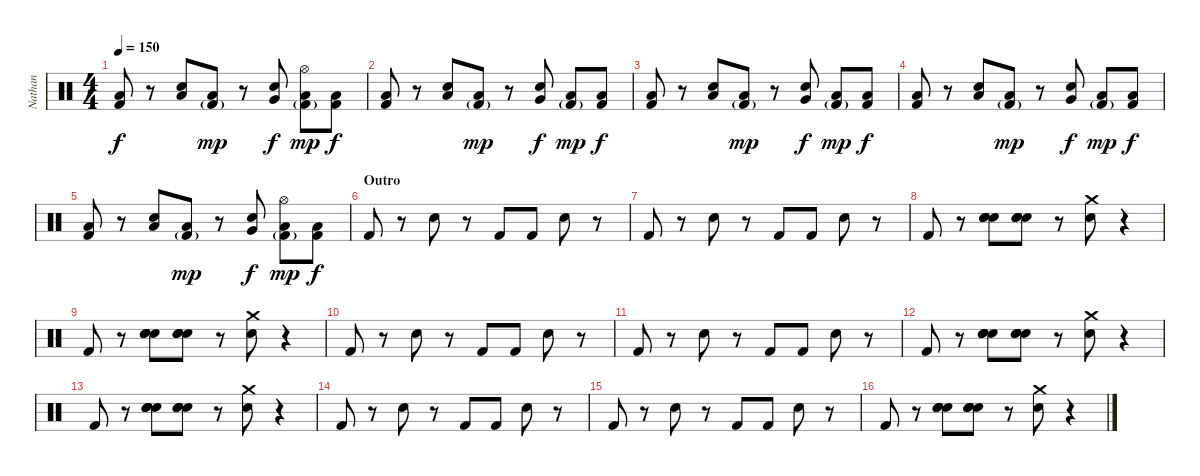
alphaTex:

\track ("Nathan" "Nathan") {instrument percussion}
\staff {score}
\articulation defaults
\ts (4 4)
\tempo 150
\clef neutral
\ks c
("Low Floor Tom (hit)" "Kick (hit) 2").8{dy f} r.8 ("Electric Snare (hit)" "Low Tom (hit)").8 ("Low Floor Tom (hit)" "Kick (hit) 2"{g}).8{dy mp} r.8 ("Electric Snare (hit)" "Very Low Tom (hit)").8{dy f} ("Hi-Hat (open)" "Low Floor Tom (hit)" "Kick (hit) 2"{g}).8{dy mp} ("Low Floor Tom (hit)" "Kick (hit) 2").8{dy f} |
("Low Floor Tom (hit)" "Kick (hit) 2").8 r.8 ("Electric Snare (hit)" "Low Tom (hit)").8 ("Low Floor Tom (hit)" "Kick (hit) 2"{g}).8{dy mp} r.8 ("Electric Snare (hit)" "Very Low Tom (hit)").8{dy f} ("Low Floor Tom (hit)" "Kick (hit) 2"{g}).8{dy mp} ("Low Floor Tom (hit)" "Kick (hit) 2").8{dy f} |
("Low Floor Tom (hit)" "Kick (hit) 2").8 r.8 ("Electric Snare (hit)" "Low Tom (hit)").8 ("Low Floor Tom (hit)" "Kick (hit) 2"{g}).8{dy mp} r.8 ("Electric Snare (hit)" "Very Low Tom (hit)").8{dy f} ("Low Floor Tom (hit)" "Kick (hit) 2"{g}).8{dy mp} ("Low Floor Tom (hit)" "Kick (hit) 2").8{dy f} |
("Low Floor Tom (hit)" "Kick (hit) 2").8 r.8 ("Electric Snare (hit)" "Low Tom (hit)").8 ("Low Floor Tom (hit)" "Kick (hit) 2"{g}).8{dy mp} r.8 ("Electric Snare (hit)" "Very Low Tom (hit)").8{dy f} ("Low Floor Tom (hit)" "Kick (hit) 2"{g}).8{dy mp} ("Low Floor Tom (hit)" "Kick (hit) 2").8{dy f} |
("Low Floor Tom (hit)" "Kick (hit) 2").8 r.8 ("Electric Snare (hit)" "Low Tom (hit)").8 ("Low Floor Tom (hit)" "Kick (hit) 2"{g}).8{dy mp} r.8 ("Electric Snare (hit)" "Very Low Tom (hit)").8{dy f} ("Hi-Hat (open)" "Low Floor Tom (hit)" "Kick (hit) 2"{g}).8{dy mp} ("Low Floor Tom (hit)" "Kick (hit) 2").8{dy f} |
\section ("" "Outro")
"Kick (hit) 2".8 r.8 "Electric Snare (hit)".8 r.8 "Kick (hit) 2".8 "Kick (hit) 2".8 "Electric Snare (hit)".8 r.8 |
"Kick (hit) 2".8 r.8 "Electric Snare (hit)".8 r.8 "Kick (hit) 2".8 "Kick (hit) 2".8 "Electric Snare (hit)".8 r.8 |
"Kick (hit) 2".8 r.8 ("Hand Clap (hit)" "Hand Clap (hit)" "Hand Clap (hit)" "Hand Clap (hit)").8 ("Hand Clap (hit)" "Hand Clap (hit)" "Hand Clap (hit)" "Hand Clap (hit)").8 r.8 ("Crash medium (hit)" "Electric Snare (hit)").8 r.4 |
"Kick (hit) 2".8 r.8 ("Hand Clap (hit)" "Hand Clap (hit)" "Hand Clap (hit)" "Hand Clap (hit)").8 ("Hand Clap (hit)" "Hand Clap (hit)" "Hand Clap (hit)" "Hand Clap (hit)").8 r.8 ("Crash medium (hit)" "Electric Snare (hit)").8 r.4 |
"Kick (hit) 2".8 r.8 "Electric Snare (hit)".8 r.8 "Kick (hit) 2".8 "Kick (hit) 2".8 "Electric Snare (hit)".8 r.8 |
"Kick (hit) 2".8 r.8 "Electric Snare (hit)".8 r.8 "Kick (hit) 2".8 "Kick (hit) 2".8 "Electric Snare (hit)".8 r.8 |
"Kick (hit) 2".8 r.8 ("Hand Clap (hit)" "Hand Clap (hit)" "Hand Clap (hit)" "Hand Clap (hit)").8 ("Hand Clap (hit)" "Hand Clap (hit)" "Hand Clap (hit)" "Hand Clap (hit)").8 r.8 ("Crash medium (hit)" "Electric Snare (hit)").8 r.4 |
"Kick (hit) 2".8 r.8 ("Hand Clap (hit)" "Hand Clap (hit)" "Hand Clap (hit)" "Hand Clap (hit)").8 ("Hand Clap (hit)" "Hand Clap (hit)" "Hand Clap (hit)" "Hand Clap (hit)").8 r.8 ("Crash medium (hit)" "Electric Snare (hit)").8 r.4 |
"Kick (hit) 2".8 r.8 "Electric Snare (hit)".8 r.8 "Kick (hit) 2".8 "Kick (hit) 2".8 "Electric Snare (hit)".8 r.8 |
"Kick (hit) 2".8 r.8 "Electric Snare (hit)".8 r.8 "Kick (hit) 2".8 "Kick (hit) 2".8 "Electric Snare (hit)".8 r.8 |
"Kick (hit) 2".8 r.8 ("Hand Clap (hit)" "Hand Clap (hit)" "Hand Clap (hit)" "Hand Clap (hit)").8 ("Hand Clap (hit)" "Hand Clap (hit)" "Hand Clap (hit)" "Hand Clap (hit)").8 r.8 ("Crash medium (hit)" "Electric Snare (hit)").8 r.4
